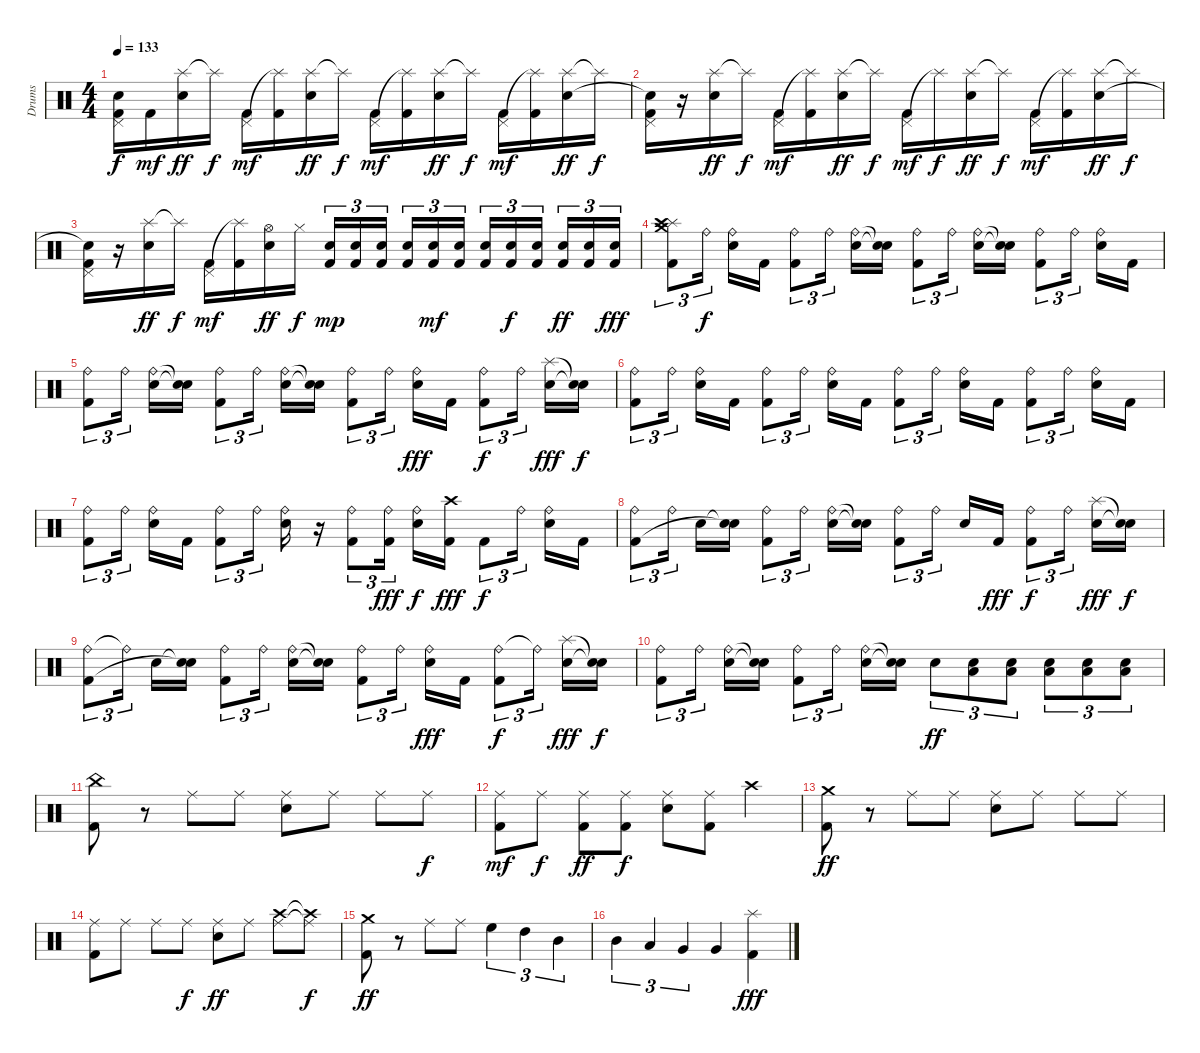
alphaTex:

\track ("Drums" "Drums") {instrument percussion}
\staff {score}
\articulation defaults
\ts (4 4)
\tempo 133
\clef neutral
\ks c
("Pedal Hi-Hat (hit)" "Snare (hit)"{t} "Kick (hit) 2").16{dy f} "Kick (hit) 2".16{dy mf} ("Splash (hit)" "Snare (hit) 2").16{dy ff} "Splash (hit)"{t}.16{dy f} ("Pedal Hi-Hat (hit)" "Kick (hit) 2").16{dy mf} ("Splash (hit)"{t} "Kick (hit) 2").16 ("Splash (hit)" "Snare (hit) 2").16{dy ff} "Splash (hit)"{t}.16{dy f} ("Pedal Hi-Hat (hit)" "Kick (hit) 2").16{dy mf} ("Splash (hit)"{t} "Kick (hit) 2").16 ("Splash (hit)" "Snare (hit) 2").16{dy ff} "Splash (hit)"{t}.16{dy f} ("Pedal Hi-Hat (hit)" "Kick (hit) 2").16{dy mf} ("Splash (hit)"{t} "Kick (hit) 2").16 ("Splash (hit)" "Snare (hit) 2").16{dy ff} "Splash (hit)"{t}.16{dy f} |
("Pedal Hi-Hat (hit)" "Snare (hit)"{t} "Kick (hit) 2").16 r.16 ("Splash (hit)" "Snare (hit) 2").16{dy ff} "Splash (hit)"{t}.16{dy f} ("Pedal Hi-Hat (hit)" "Kick (hit) 2").16{dy mf} ("Splash (hit)"{t} "Kick (hit) 2").16 ("Splash (hit)" "Snare (hit) 2").16{dy ff} "Splash (hit)"{t}.16{dy f} ("Pedal Hi-Hat (hit)" "Kick (hit) 2").16{dy mf} "Splash (hit)"{t}.16{dy f} ("Splash (hit)" "Snare (hit) 2").16{dy ff} "Splash (hit)"{t}.16{dy f} ("Pedal Hi-Hat (hit)" "Kick (hit) 2").16{dy mf} ("Splash (hit)"{t} "Kick (hit) 2").16 ("Splash (hit)" "Snare (hit) 2").16{dy ff} "Splash (hit)"{t}.16{dy f} |
("Pedal Hi-Hat (hit)" "Snare (hit)"{t} "Kick (hit) 2").16 r.16 ("Splash (hit)" "Snare (hit) 2").16{dy ff} "Splash (hit)"{t}.16{dy f} ("Pedal Hi-Hat (hit)" "Kick (hit) 2").16{dy mf} ("Splash (hit)"{t} "Kick (hit) 2").16 ("Hi-Hat (open)" "Snare (hit) 2").16{dy ff} "Hi-Hat (closed)".16{dy f} ("Electric Snare (hit)" "Kick (hit) 2").16{tu (3 2) dy mp} ("Electric Snare (hit)" "Kick (hit) 2").16{tu (3 2)} ("Electric Snare (hit)" "Kick (hit) 2").16{tu (3 2) beam splitsecondary} ("Electric Snare (hit)" "Kick (hit) 2").16{tu (3 2)} ("Electric Snare (hit)" "Kick (hit) 2").16{tu (3 2) dy mf} ("Electric Snare (hit)" "Kick (hit) 2").16{tu (3 2)} ("Electric Snare (hit)" "Kick (hit) 2").16{tu (3 2)} ("Electric Snare (hit)" "Kick (hit) 2").16{tu (3 2) dy f} ("Electric Snare (hit)" "Kick (hit) 2").16{tu (3 2) beam splitsecondary} ("Electric Snare (hit)" "Kick (hit) 2").16{tu (3 2) dy ff} ("Electric Snare (hit)" "Kick (hit) 2").16{tu (3 2)} ("Electric Snare (hit)" "Kick (hit) 2").16{tu (3 2) dy fff} |
("Crash medium (hit)" "Splash (hit)" "Crash high (hit)" "Kick (hit) 2").8{tu (3 2)} "Ride (bell)".16{tu (3 2) dy f beam splitsecondary} ("Ride (bell)" "Snare (hit) 2").16 "Kick (hit) 2".16 ("Ride (bell)" "Kick (hit) 2").8{tu (3 2)} "Ride (bell)".16{tu (3 2) beam splitsecondary} ("Ride (bell)" "Snare (hit) 2").16 ("Snare (hit)"{t} "Snare (hit)"{t}).16 ("Ride (bell)" "Kick (hit) 2").8{tu (3 2)} "Ride (bell)".16{tu (3 2) beam splitsecondary} ("Ride (bell)" "Snare (hit) 2").16 ("Snare (hit)"{t} "Snare (hit)"{t}).16 ("Ride (bell)" "Kick (hit) 2").8{tu (3 2)} "Ride (bell)".16{tu (3 2) beam splitsecondary} ("Ride (bell)" "Snare (hit) 2").16 "Kick (hit) 2".16 |
("Ride (bell)" "Kick (hit) 2").8{tu (3 2)} "Ride (bell)".16{tu (3 2) beam splitsecondary} ("Ride (bell)" "Snare (hit) 2").16 ("Snare (hit)"{t} "Snare (hit)"{t}).16 ("Ride (bell)" "Kick (hit) 2").8{tu (3 2)} "Ride (bell)".16{tu (3 2) beam splitsecondary} ("Ride (bell)" "Snare (hit) 2").16 ("Snare (hit)"{t} "Snare (hit)"{t}).16 ("Ride (bell)" "Kick (hit) 2").8{tu (3 2)} "Ride (bell)".16{tu (3 2) beam splitsecondary} ("Ride (bell)" "Snare (hit) 2").16{dy fff} "Kick (hit) 2".16 ("Ride (bell)" "Kick (hit) 2").8{tu (3 2) dy f} "Ride (bell)".16{tu (3 2) beam splitsecondary} ("Splash (hit)" "Snare (hit) 2").16{dy fff} ("Snare (hit)"{t} "Snare (hit)"{t}).16{dy f} |
("Ride (bell)" "Kick (hit) 2").8{tu (3 2)} "Ride (bell)".16{tu (3 2) beam splitsecondary} ("Ride (bell)" "Snare (hit) 2").16 "Kick (hit) 2".16 ("Ride (bell)" "Kick (hit) 2").8{tu (3 2)} "Ride (bell)".16{tu (3 2) beam splitsecondary} ("Ride (bell)" "Snare (hit) 2").16 "Kick (hit) 2".16 ("Ride (bell)" "Kick (hit) 2").8{tu (3 2)} "Ride (bell)".16{tu (3 2) beam splitsecondary} ("Ride (bell)" "Snare (hit) 2").16 "Kick (hit) 2".16 ("Ride (bell)" "Kick (hit) 2").8{tu (3 2)} "Ride (bell)".16{tu (3 2) beam splitsecondary} ("Ride (bell)" "Snare (hit) 2").16 "Kick (hit) 2".16 |
("Ride (bell)" "Kick (hit) 2").8{tu (3 2)} "Ride (bell)".16{tu (3 2) beam splitsecondary} ("Ride (bell)" "Snare (hit) 2").16 "Kick (hit) 2".16 ("Ride (bell)" "Kick (hit) 2").8{tu (3 2)} "Ride (bell)".16{tu (3 2)} ("Ride (bell)" "Snare (hit) 2").16 r.16 ("Ride (bell)" "Kick (hit) 2").8{tu (3 2)} ("Ride (bell)" "Kick (hit) 2").16{tu (3 2) dy fff beam splitsecondary} ("Ride (bell)" "Snare (hit) 2").16{dy f} ("Crash high (hit)" "Kick (hit) 2").16{dy fff} "Kick (hit) 2".8{tu (3 2) dy f} "Ride (bell)".16{tu (3 2) beam splitsecondary} ("Ride (bell)" "Snare (hit) 2").16 "Kick (hit) 2".16 |
("Ride (bell)" "Kick (hit) 2").8{tu (3 2)} "Ride (bell)".16{tu (3 2) beam splitsecondary} "Snare (hit) 2".16 ("Snare (hit)"{t} "Snare (hit)"{t}).16 ("Ride (bell)" "Kick (hit) 2").8{tu (3 2)} "Ride (bell)".16{tu (3 2) beam splitsecondary} ("Ride (bell)" "Snare (hit) 2").16 ("Snare (hit)"{t} "Snare (hit)"{t}).16 ("Ride (bell)" "Kick (hit) 2").8{tu (3 2)} "Ride (bell)".16{tu (3 2) beam splitsecondary} "Snare (hit) 2".16 "Kick (hit) 2".16{dy fff} ("Ride (bell)" "Kick (hit) 2").8{tu (3 2) dy f} "Ride (bell)".16{tu (3 2) beam splitsecondary} ("Splash (hit)" "Snare (hit) 2").16{dy fff} ("Snare (hit)"{t} "Snare (hit)"{t}).16{dy f} |
("Ride (bell)" "Kick (hit) 2").8{tu (3 2)} "Ride (bell)"{t}.16{tu (3 2) beam splitsecondary} "Snare (hit) 2".16 ("Snare (hit)"{t} "Snare (hit)"{t}).16 ("Ride (bell)" "Kick (hit) 2").8{tu (3 2)} "Ride (bell)".16{tu (3 2) beam splitsecondary} ("Ride (bell)" "Snare (hit) 2").16 ("Snare (hit)"{t} "Snare (hit)"{t}).16 ("Ride (bell)" "Kick (hit) 2").8{tu (3 2)} "Ride (bell)".16{tu (3 2) beam splitsecondary} ("Ride (bell)" "Snare (hit) 2").16{dy fff} "Kick (hit) 2".16 ("Ride (bell)" "Kick (hit) 2").8{tu (3 2) dy f} "Ride (bell)"{t}.16{tu (3 2) beam splitsecondary} ("Splash (hit)" "Snare (hit) 2").16{dy fff} ("Snare (hit)"{t} "Snare (hit)"{t}).16{dy f} |
("Ride (bell)" "Kick (hit) 2").8{tu (3 2)} "Ride (bell)".16{tu (3 2) beam splitsecondary} ("Ride (bell)" "Snare (hit) 2").16 ("Snare (hit)"{t} "Snare (hit)"{t}).16 ("Ride (bell)" "Kick (hit) 2").8{tu (3 2)} "Ride (bell)".16{tu (3 2) beam splitsecondary} ("Ride (bell)" "Snare (hit) 2").16 ("Snare (hit)"{t} "Snare (hit)"{t}).16 "Snare (hit) 2".8{tu (3 2) dy ff} ("Snare (hit) 2" "Low Tom (hit)").8{tu (3 2)} ("Snare (hit) 2" "Low Tom (hit)").8{tu (3 2)} ("Snare (hit) 2" "Low Tom (hit)").8{tu (3 2)} ("Snare (hit) 2" "Low Tom (hit)").8{tu (3 2)} ("Snare (hit) 2" "Low Tom (hit)").8{tu (3 2)} |
("China (hit)" "Kick (hit) 2").8 r.8 "Ride (middle)".8 "Ride (middle)".8 ("Ride (middle)" "Snare (hit) 2").8 "Ride (middle)".8 "Ride (middle)".8 "Ride (middle)".8{dy f} |
("Ride (middle)" "Kick (hit) 2").8{dy mf} "Ride (middle)".8{dy f} ("Ride (middle)" "Kick (hit) 2").8{dy ff} ("Ride (middle)" "Kick (hit) 2").8{dy f} ("Ride (middle)" "Snare (hit) 2").8 ("Ride (middle)" "Kick (hit) 2").8 "Crash high (hit)".4 |
("Crash medium (hit)" "Kick (hit) 2").8{dy ff} r.8 "Ride (middle)".8 "Ride (middle)".8 ("Ride (middle)" "Snare (hit) 2").8 "Ride (middle)".8 "Ride (middle)".8 "Ride (middle)".8 |
("Ride (middle)" "Kick (hit) 2").8 "Ride (middle)".8 "Ride (middle)".8 "Ride (middle)".8{dy f} ("Ride (middle)" "Snare (hit) 2").8{dy ff} "Ride (middle)".8 ("Ride (middle)" "Crash high (hit)").8 ("Ride (middle)"{t} "Crash high (hit)"{t}).8{dy f} |
("Crash medium (hit)" "Kick (hit) 2").8{dy ff} r.8 "Ride (middle)".8 "Ride (middle)".8 "High Floor Tom (hit)".4{tu (3 2)} "High Tom (hit)".4{tu (3 2)} "Mid Tom (hit)".4{tu (3 2)} |
"Mid Tom (hit)".4{tu (3 2)} "Low Tom (hit)".4{tu (3 2)} "Very Low Tom (hit)".4{tu (3 2)} "Very Low Tom (hit)".4 ("Splash (hit)" "Kick (hit) 2").4{dy fff}
